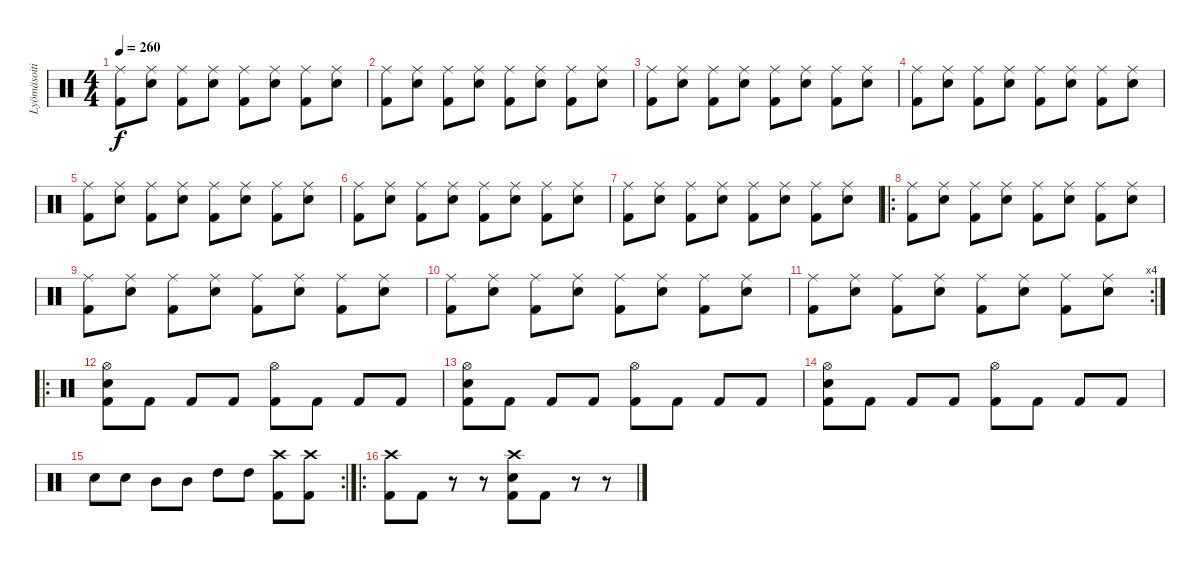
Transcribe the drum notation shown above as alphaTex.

\track ("Lyömäsoitin" "Lyömäsoiti") {instrument percussion}
\staff {score}
\articulation defaults
\ts (4 4)
\tempo 260
\clef neutral
\ks c
("Ride (middle)" "Kick (hit) 2").8{dy f} ("Ride (middle)" "Electric Snare (hit)").8 ("Ride (middle)" "Kick (hit) 2").8 ("Ride (middle)" "Electric Snare (hit)").8 ("Ride (middle)" "Kick (hit) 2").8 ("Ride (middle)" "Electric Snare (hit)").8 ("Ride (middle)" "Kick (hit) 2").8 ("Ride (middle)" "Electric Snare (hit)").8 |
("Ride (middle)" "Kick (hit) 2").8 ("Ride (middle)" "Electric Snare (hit)").8 ("Ride (middle)" "Kick (hit) 2").8 ("Ride (middle)" "Electric Snare (hit)").8 ("Ride (middle)" "Kick (hit) 2").8 ("Ride (middle)" "Electric Snare (hit)").8 ("Ride (middle)" "Kick (hit) 2").8 ("Ride (middle)" "Electric Snare (hit)").8 |
("Ride (middle)" "Kick (hit) 2").8 ("Ride (middle)" "Electric Snare (hit)").8 ("Ride (middle)" "Kick (hit) 2").8 ("Ride (middle)" "Electric Snare (hit)").8 ("Ride (middle)" "Kick (hit) 2").8 ("Ride (middle)" "Electric Snare (hit)").8 ("Ride (middle)" "Kick (hit) 2").8 ("Ride (middle)" "Electric Snare (hit)").8 |
("Ride (middle)" "Kick (hit) 2").8 ("Ride (middle)" "Electric Snare (hit)").8 ("Ride (middle)" "Kick (hit) 2").8 ("Ride (middle)" "Electric Snare (hit)").8 ("Ride (middle)" "Kick (hit) 2").8 ("Ride (middle)" "Electric Snare (hit)").8 ("Ride (middle)" "Kick (hit) 2").8 ("Ride (middle)" "Electric Snare (hit)").8 |
("Ride (middle)" "Kick (hit) 2").8 ("Ride (middle)" "Electric Snare (hit)").8 ("Ride (middle)" "Kick (hit) 2").8 ("Ride (middle)" "Electric Snare (hit)").8 ("Ride (middle)" "Kick (hit) 2").8 ("Ride (middle)" "Electric Snare (hit)").8 ("Ride (middle)" "Kick (hit) 2").8 ("Ride (middle)" "Electric Snare (hit)").8 |
("Ride (middle)" "Kick (hit) 2").8 ("Ride (middle)" "Electric Snare (hit)").8 ("Ride (middle)" "Kick (hit) 2").8 ("Ride (middle)" "Electric Snare (hit)").8 ("Ride (middle)" "Kick (hit) 2").8 ("Ride (middle)" "Electric Snare (hit)").8 ("Ride (middle)" "Kick (hit) 2").8 ("Ride (middle)" "Electric Snare (hit)").8 |
("Ride (middle)" "Kick (hit) 2").8 ("Ride (middle)" "Electric Snare (hit)").8 ("Ride (middle)" "Kick (hit) 2").8 ("Ride (middle)" "Electric Snare (hit)").8 ("Ride (middle)" "Kick (hit) 2").8 ("Ride (middle)" "Electric Snare (hit)").8 ("Ride (middle)" "Kick (hit) 2").8 ("Ride (middle)" "Electric Snare (hit)").8 |
\ro
("Ride (middle)" "Kick (hit) 2").8 ("Ride (middle)" "Electric Snare (hit)").8 ("Ride (middle)" "Kick (hit) 2").8 ("Ride (middle)" "Electric Snare (hit)").8 ("Ride (middle)" "Kick (hit) 2").8 ("Ride (middle)" "Electric Snare (hit)").8 ("Ride (middle)" "Kick (hit) 2").8 ("Ride (middle)" "Electric Snare (hit)").8 |
("Ride (middle)" "Kick (hit) 2").8 ("Ride (middle)" "Electric Snare (hit)").8 ("Ride (middle)" "Kick (hit) 2").8 ("Ride (middle)" "Electric Snare (hit)").8 ("Ride (middle)" "Kick (hit) 2").8 ("Ride (middle)" "Electric Snare (hit)").8 ("Ride (middle)" "Kick (hit) 2").8 ("Ride (middle)" "Electric Snare (hit)").8 |
("Ride (middle)" "Kick (hit) 2").8 ("Ride (middle)" "Electric Snare (hit)").8 ("Ride (middle)" "Kick (hit) 2").8 ("Ride (middle)" "Electric Snare (hit)").8 ("Ride (middle)" "Kick (hit) 2").8 ("Ride (middle)" "Electric Snare (hit)").8 ("Ride (middle)" "Kick (hit) 2").8 ("Ride (middle)" "Electric Snare (hit)").8 |
\rc 4
("Ride (middle)" "Kick (hit) 2").8 ("Ride (middle)" "Electric Snare (hit)").8 ("Ride (middle)" "Kick (hit) 2").8 ("Ride (middle)" "Electric Snare (hit)").8 ("Ride (middle)" "Kick (hit) 2").8 ("Ride (middle)" "Electric Snare (hit)").8 ("Ride (middle)" "Kick (hit) 2").8 ("Ride (middle)" "Electric Snare (hit)").8 |
\ro
("Hi-Hat (open)" "Electric Snare (hit)" "Kick (hit) 2").8 "Kick (hit) 2".8 "Kick (hit) 2".8 "Kick (hit) 2".8 ("Hi-Hat (open)" "Kick (hit) 2").8 "Kick (hit) 2".8 "Kick (hit) 2".8 "Kick (hit) 2".8 |
("Hi-Hat (open)" "Electric Snare (hit)" "Kick (hit) 2").8 "Kick (hit) 2".8 "Kick (hit) 2".8 "Kick (hit) 2".8 ("Hi-Hat (open)" "Kick (hit) 2").8 "Kick (hit) 2".8 "Kick (hit) 2".8 "Kick (hit) 2".8 |
("Hi-Hat (open)" "Electric Snare (hit)" "Kick (hit) 2").8 "Kick (hit) 2".8 "Kick (hit) 2".8 "Kick (hit) 2".8 ("Hi-Hat (open)" "Kick (hit) 2").8 "Kick (hit) 2".8 "Kick (hit) 2".8 "Kick (hit) 2".8 |
\rc 2 "Electric Snare (hit)".8 "Electric Snare (hit)".8 "Mid Tom (hit)".8 "Mid Tom (hit)".8 "High Tom (hit)".8 "High Tom (hit)".8
("Crash high (hit)" "Kick (hit) 2").8 ("Crash high (hit)" "Kick (hit) 2").8 |
\ro
("Crash high (hit)" "Kick (hit) 2").8 "Kick (hit) 2".8 r.8 r.8 ("Crash high (hit)" "Electric Snare (hit)" "Kick (hit) 2").8 "Kick (hit) 2".8 r.8 r.8
